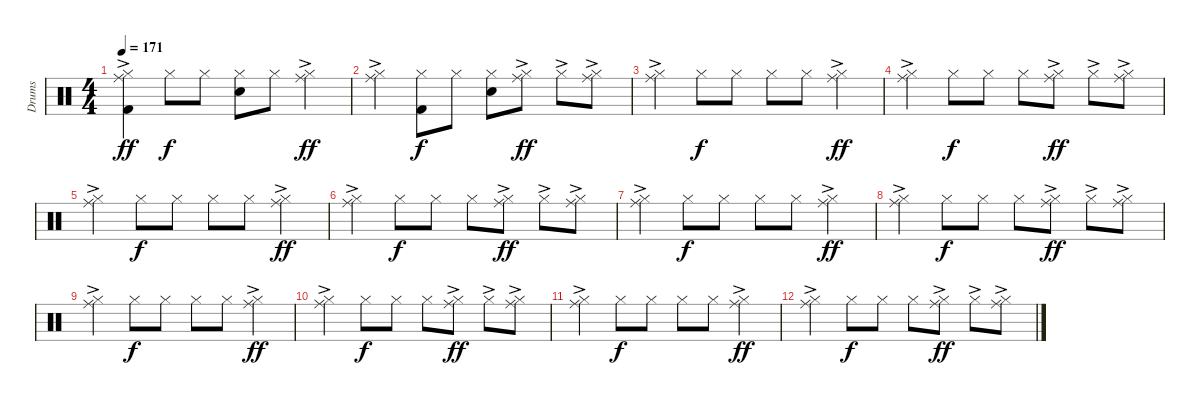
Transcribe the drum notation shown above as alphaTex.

\track ("Drums" "Drums") {instrument percussion}
\staff {score}
\articulation defaults
\ts (4 4)
\tempo 171
\clef neutral
\ks c
("Hi-Hat (closed)"{ac} "Ride (middle)" "Kick (hit) 2").4{dy ff} "Hi-Hat (closed)".8{dy f} "Hi-Hat (closed)".8 ("Hi-Hat (closed)" "Snare (hit) 2").8 "Hi-Hat (closed)".8 ("Hi-Hat (closed)"{ac} "Ride (middle)").4{dy ff} |
("Hi-Hat (closed)"{ac} "Ride (middle)").4 ("Hi-Hat (closed)" "Kick (hit) 2").8{dy f} "Hi-Hat (closed)".8 ("Hi-Hat (closed)" "Snare (hit) 2").8 ("Hi-Hat (closed)"{ac} "Ride (middle)").8{dy ff} "Hi-Hat (closed)"{ac}.8 ("Hi-Hat (closed)"{ac} "Ride (middle)").8 |
("Hi-Hat (closed)"{ac} "Ride (middle)").4 "Hi-Hat (closed)".8{dy f} "Hi-Hat (closed)".8 "Hi-Hat (closed)".8 "Hi-Hat (closed)".8 ("Hi-Hat (closed)"{ac} "Ride (middle)").4{dy ff} |
("Hi-Hat (closed)"{ac} "Ride (middle)").4 "Hi-Hat (closed)".8{dy f} "Hi-Hat (closed)".8 "Hi-Hat (closed)".8 ("Hi-Hat (closed)"{ac} "Ride (middle)").8{dy ff} "Hi-Hat (closed)"{ac}.8 ("Hi-Hat (closed)"{ac} "Ride (middle)").8 |
("Hi-Hat (closed)"{ac} "Ride (middle)").4 "Hi-Hat (closed)".8{dy f} "Hi-Hat (closed)".8 "Hi-Hat (closed)".8 "Hi-Hat (closed)".8 ("Hi-Hat (closed)"{ac} "Ride (middle)").4{dy ff} |
("Hi-Hat (closed)"{ac} "Ride (middle)").4 "Hi-Hat (closed)".8{dy f} "Hi-Hat (closed)".8 "Hi-Hat (closed)".8 ("Hi-Hat (closed)"{ac} "Ride (middle)").8{dy ff} "Hi-Hat (closed)"{ac}.8 ("Hi-Hat (closed)"{ac} "Ride (middle)").8 |
("Hi-Hat (closed)"{ac} "Ride (middle)").4 "Hi-Hat (closed)".8{dy f} "Hi-Hat (closed)".8 "Hi-Hat (closed)".8 "Hi-Hat (closed)".8 ("Hi-Hat (closed)"{ac} "Ride (middle)").4{dy ff} |
("Hi-Hat (closed)"{ac} "Ride (middle)").4 "Hi-Hat (closed)".8{dy f} "Hi-Hat (closed)".8 "Hi-Hat (closed)".8 ("Hi-Hat (closed)"{ac} "Ride (middle)").8{dy ff} "Hi-Hat (closed)"{ac}.8 ("Hi-Hat (closed)"{ac} "Ride (middle)").8 |
("Hi-Hat (closed)"{ac} "Ride (middle)").4 "Hi-Hat (closed)".8{dy f} "Hi-Hat (closed)".8 "Hi-Hat (closed)".8 "Hi-Hat (closed)".8 ("Hi-Hat (closed)"{ac} "Ride (middle)").4{dy ff} |
("Hi-Hat (closed)"{ac} "Ride (middle)").4 "Hi-Hat (closed)".8{dy f} "Hi-Hat (closed)".8 "Hi-Hat (closed)".8 ("Hi-Hat (closed)"{ac} "Ride (middle)").8{dy ff} "Hi-Hat (closed)"{ac}.8 ("Hi-Hat (closed)"{ac} "Ride (middle)").8 |
("Hi-Hat (closed)"{ac} "Ride (middle)").4 "Hi-Hat (closed)".8{dy f} "Hi-Hat (closed)".8 "Hi-Hat (closed)".8 "Hi-Hat (closed)".8 ("Hi-Hat (closed)"{ac} "Ride (middle)").4{dy ff} |
("Hi-Hat (closed)"{ac} "Ride (middle)").4 "Hi-Hat (closed)".8{dy f} "Hi-Hat (closed)".8 "Hi-Hat (closed)".8 ("Hi-Hat (closed)"{ac} "Ride (middle)").8{dy ff} "Hi-Hat (closed)"{ac}.8 ("Hi-Hat (closed)"{ac} "Ride (middle)").8
